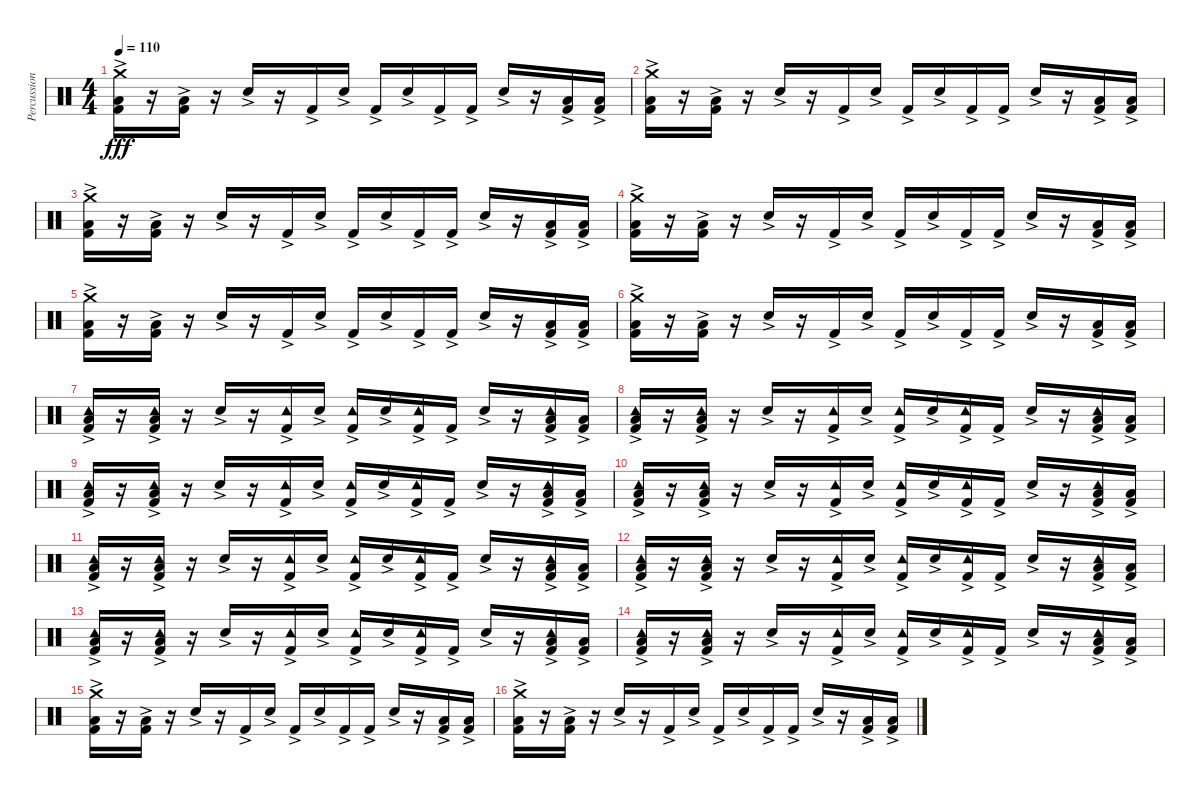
\track ("Percussion" "Percussion") {instrument percussion}
\staff {score}
\articulation defaults
\ts (4 4)
\tempo 110
\clef neutral
\ks c
("Crash medium (hit)" "Kick (hit) 2"{ac} "Low Floor Tom (hit)").16{dy fff} r.16 ("Kick (hit) 2"{ac} "Low Floor Tom (hit)").16 r.16 "Snare (hit) 2"{ac}.16 r.16 "Kick (hit) 2"{ac}.16 "Snare (hit) 2"{ac}.16 "Kick (hit) 2"{ac}.16 "Snare (hit) 2"{ac}.16 "Kick (hit) 2"{ac}.16 "Kick (hit) 2"{ac}.16 "Snare (hit) 2"{ac}.16 r.16 ("Kick (hit) 2"{ac} "Low Floor Tom (hit)").16 ("Kick (hit) 2"{ac} "Low Floor Tom (hit)").16 |
("Crash medium (hit)" "Kick (hit) 2"{ac} "Low Floor Tom (hit)").16 r.16 ("Kick (hit) 2"{ac} "Low Floor Tom (hit)").16 r.16 "Snare (hit) 2"{ac}.16 r.16 "Kick (hit) 2"{ac}.16 "Snare (hit) 2"{ac}.16 "Kick (hit) 2"{ac}.16 "Snare (hit) 2"{ac}.16 "Kick (hit) 2"{ac}.16 "Kick (hit) 2"{ac}.16 "Snare (hit) 2"{ac}.16 r.16 ("Kick (hit) 2"{ac} "Low Floor Tom (hit)").16 ("Kick (hit) 2"{ac} "Low Floor Tom (hit)").16 |
("Crash medium (hit)" "Kick (hit) 2"{ac} "Low Floor Tom (hit)").16 r.16 ("Kick (hit) 2"{ac} "Low Floor Tom (hit)").16 r.16 "Snare (hit) 2"{ac}.16 r.16 "Kick (hit) 2"{ac}.16 "Snare (hit) 2"{ac}.16 "Kick (hit) 2"{ac}.16 "Snare (hit) 2"{ac}.16 "Kick (hit) 2"{ac}.16 "Kick (hit) 2"{ac}.16 "Snare (hit) 2"{ac}.16 r.16 ("Kick (hit) 2"{ac} "Low Floor Tom (hit)").16 ("Kick (hit) 2"{ac} "Low Floor Tom (hit)").16 |
("Crash medium (hit)" "Kick (hit) 2"{ac} "Low Floor Tom (hit)").16 r.16 ("Kick (hit) 2"{ac} "Low Floor Tom (hit)").16 r.16 "Snare (hit) 2"{ac}.16 r.16 "Kick (hit) 2"{ac}.16 "Snare (hit) 2"{ac}.16 "Kick (hit) 2"{ac}.16 "Snare (hit) 2"{ac}.16 "Kick (hit) 2"{ac}.16 "Kick (hit) 2"{ac}.16 "Snare (hit) 2"{ac}.16 r.16 ("Kick (hit) 2"{ac} "Low Floor Tom (hit)").16 ("Kick (hit) 2"{ac} "Low Floor Tom (hit)").16 |
("Crash medium (hit)" "Kick (hit) 2"{ac} "Low Floor Tom (hit)").16 r.16 ("Kick (hit) 2"{ac} "Low Floor Tom (hit)").16 r.16 "Snare (hit) 2"{ac}.16 r.16 "Kick (hit) 2"{ac}.16 "Snare (hit) 2"{ac}.16 "Kick (hit) 2"{ac}.16 "Snare (hit) 2"{ac}.16 "Kick (hit) 2"{ac}.16 "Kick (hit) 2"{ac}.16 "Snare (hit) 2"{ac}.16 r.16 ("Kick (hit) 2"{ac} "Low Floor Tom (hit)").16 ("Kick (hit) 2"{ac} "Low Floor Tom (hit)").16 |
("Crash medium (hit)" "Kick (hit) 2"{ac} "Low Floor Tom (hit)").16 r.16 ("Kick (hit) 2"{ac} "Low Floor Tom (hit)").16 r.16 "Snare (hit) 2"{ac}.16 r.16 "Kick (hit) 2"{ac}.16 "Snare (hit) 2"{ac}.16 "Kick (hit) 2"{ac}.16 "Snare (hit) 2"{ac}.16 "Kick (hit) 2"{ac}.16 "Kick (hit) 2"{ac}.16 "Snare (hit) 2"{ac}.16 r.16 ("Kick (hit) 2"{ac} "Low Floor Tom (hit)").16 ("Kick (hit) 2"{ac} "Low Floor Tom (hit)").16 |
("Kick (hit) 2"{ac} "Low Floor Tom (hit)" "Tambourine (hit)"{ac}).16 r.16 ("Kick (hit) 2"{ac} "Low Floor Tom (hit)" "Tambourine (hit)"{ac}).16 r.16 "Snare (hit) 2"{ac}.16 r.16 ("Kick (hit) 2"{ac} "Tambourine (hit)"{ac}).16 "Snare (hit) 2"{ac}.16 ("Kick (hit) 2"{ac} "Tambourine (hit)"{ac}).16 "Snare (hit) 2"{ac}.16 ("Kick (hit) 2"{ac} "Tambourine (hit)"{ac}).16 "Kick (hit) 2"{ac}.16 "Snare (hit) 2"{ac}.16 r.16 ("Kick (hit) 2"{ac} "Low Floor Tom (hit)" "Tambourine (hit)"{ac}).16 ("Kick (hit) 2"{ac} "Low Floor Tom (hit)").16 |
("Kick (hit) 2"{ac} "Low Floor Tom (hit)" "Tambourine (hit)"{ac}).16 r.16 ("Kick (hit) 2"{ac} "Low Floor Tom (hit)" "Tambourine (hit)"{ac}).16 r.16 "Snare (hit) 2"{ac}.16 r.16 ("Kick (hit) 2"{ac} "Tambourine (hit)"{ac}).16 "Snare (hit) 2"{ac}.16 ("Kick (hit) 2"{ac} "Tambourine (hit)"{ac}).16 "Snare (hit) 2"{ac}.16 ("Kick (hit) 2"{ac} "Tambourine (hit)"{ac}).16 "Kick (hit) 2"{ac}.16 "Snare (hit) 2"{ac}.16 r.16 ("Kick (hit) 2"{ac} "Low Floor Tom (hit)" "Tambourine (hit)"{ac}).16 ("Kick (hit) 2"{ac} "Low Floor Tom (hit)").16 |
("Kick (hit) 2"{ac} "Low Floor Tom (hit)" "Tambourine (hit)"{ac}).16 r.16 ("Kick (hit) 2"{ac} "Low Floor Tom (hit)" "Tambourine (hit)"{ac}).16 r.16 "Snare (hit) 2"{ac}.16 r.16 ("Kick (hit) 2"{ac} "Tambourine (hit)"{ac}).16 "Snare (hit) 2"{ac}.16 ("Kick (hit) 2"{ac} "Tambourine (hit)"{ac}).16 "Snare (hit) 2"{ac}.16 ("Kick (hit) 2"{ac} "Tambourine (hit)"{ac}).16 "Kick (hit) 2"{ac}.16 "Snare (hit) 2"{ac}.16 r.16 ("Kick (hit) 2"{ac} "Low Floor Tom (hit)" "Tambourine (hit)"{ac}).16 ("Kick (hit) 2"{ac} "Low Floor Tom (hit)").16 |
("Kick (hit) 2"{ac} "Low Floor Tom (hit)" "Tambourine (hit)"{ac}).16 r.16 ("Kick (hit) 2"{ac} "Low Floor Tom (hit)" "Tambourine (hit)"{ac}).16 r.16 "Snare (hit) 2"{ac}.16 r.16 ("Kick (hit) 2"{ac} "Tambourine (hit)"{ac}).16 "Snare (hit) 2"{ac}.16 ("Kick (hit) 2"{ac} "Tambourine (hit)"{ac}).16 "Snare (hit) 2"{ac}.16 ("Kick (hit) 2"{ac} "Tambourine (hit)"{ac}).16 "Kick (hit) 2"{ac}.16 "Snare (hit) 2"{ac}.16 r.16 ("Kick (hit) 2"{ac} "Low Floor Tom (hit)" "Tambourine (hit)"{ac}).16 ("Kick (hit) 2"{ac} "Low Floor Tom (hit)").16 |
("Kick (hit) 2"{ac} "Low Floor Tom (hit)" "Tambourine (hit)"{ac}).16 r.16 ("Kick (hit) 2"{ac} "Low Floor Tom (hit)" "Tambourine (hit)"{ac}).16 r.16 "Snare (hit) 2"{ac}.16 r.16 ("Kick (hit) 2"{ac} "Tambourine (hit)"{ac}).16 "Snare (hit) 2"{ac}.16 ("Kick (hit) 2"{ac} "Tambourine (hit)"{ac}).16 "Snare (hit) 2"{ac}.16 ("Kick (hit) 2"{ac} "Tambourine (hit)"{ac}).16 "Kick (hit) 2"{ac}.16 "Snare (hit) 2"{ac}.16 r.16 ("Kick (hit) 2"{ac} "Low Floor Tom (hit)" "Tambourine (hit)"{ac}).16 ("Kick (hit) 2"{ac} "Low Floor Tom (hit)").16 |
("Kick (hit) 2"{ac} "Low Floor Tom (hit)" "Tambourine (hit)"{ac}).16 r.16 ("Kick (hit) 2"{ac} "Low Floor Tom (hit)" "Tambourine (hit)"{ac}).16 r.16 "Snare (hit) 2"{ac}.16 r.16 ("Kick (hit) 2"{ac} "Tambourine (hit)"{ac}).16 "Snare (hit) 2"{ac}.16 ("Kick (hit) 2"{ac} "Tambourine (hit)"{ac}).16 "Snare (hit) 2"{ac}.16 ("Kick (hit) 2"{ac} "Tambourine (hit)"{ac}).16 "Kick (hit) 2"{ac}.16 "Snare (hit) 2"{ac}.16 r.16 ("Kick (hit) 2"{ac} "Low Floor Tom (hit)" "Tambourine (hit)"{ac}).16 ("Kick (hit) 2"{ac} "Low Floor Tom (hit)").16 |
("Kick (hit) 2"{ac} "Low Floor Tom (hit)" "Tambourine (hit)"{ac}).16 r.16 ("Kick (hit) 2"{ac} "Low Floor Tom (hit)" "Tambourine (hit)"{ac}).16 r.16 "Snare (hit) 2"{ac}.16 r.16 ("Kick (hit) 2"{ac} "Tambourine (hit)"{ac}).16 "Snare (hit) 2"{ac}.16 ("Kick (hit) 2"{ac} "Tambourine (hit)"{ac}).16 "Snare (hit) 2"{ac}.16 ("Kick (hit) 2"{ac} "Tambourine (hit)"{ac}).16 "Kick (hit) 2"{ac}.16 "Snare (hit) 2"{ac}.16 r.16 ("Kick (hit) 2"{ac} "Low Floor Tom (hit)" "Tambourine (hit)"{ac}).16 ("Kick (hit) 2"{ac} "Low Floor Tom (hit)").16 |
("Kick (hit) 2"{ac} "Low Floor Tom (hit)" "Tambourine (hit)"{ac}).16 r.16 ("Kick (hit) 2"{ac} "Low Floor Tom (hit)" "Tambourine (hit)"{ac}).16 r.16 "Snare (hit) 2"{ac}.16 r.16 ("Kick (hit) 2"{ac} "Tambourine (hit)"{ac}).16 "Snare (hit) 2"{ac}.16 ("Kick (hit) 2"{ac} "Tambourine (hit)"{ac}).16 "Snare (hit) 2"{ac}.16 ("Kick (hit) 2"{ac} "Tambourine (hit)"{ac}).16 "Kick (hit) 2"{ac}.16 "Snare (hit) 2"{ac}.16 r.16 ("Kick (hit) 2"{ac} "Low Floor Tom (hit)" "Tambourine (hit)"{ac}).16 ("Kick (hit) 2"{ac} "Low Floor Tom (hit)").16 |
("Crash medium (hit)" "Kick (hit) 2"{ac} "Low Floor Tom (hit)").16 r.16 ("Kick (hit) 2"{ac} "Low Floor Tom (hit)").16 r.16 "Snare (hit) 2"{ac}.16 r.16 "Kick (hit) 2"{ac}.16 "Snare (hit) 2"{ac}.16 "Kick (hit) 2"{ac}.16 "Snare (hit) 2"{ac}.16 "Kick (hit) 2"{ac}.16 "Kick (hit) 2"{ac}.16 "Snare (hit) 2"{ac}.16 r.16 ("Kick (hit) 2"{ac} "Low Floor Tom (hit)").16 ("Kick (hit) 2"{ac} "Low Floor Tom (hit)").16 |
("Crash medium (hit)" "Kick (hit) 2"{ac} "Low Floor Tom (hit)").16 r.16 ("Kick (hit) 2"{ac} "Low Floor Tom (hit)").16 r.16 "Snare (hit) 2"{ac}.16 r.16 "Kick (hit) 2"{ac}.16 "Snare (hit) 2"{ac}.16 "Kick (hit) 2"{ac}.16 "Snare (hit) 2"{ac}.16 "Kick (hit) 2"{ac}.16 "Kick (hit) 2"{ac}.16 "Snare (hit) 2"{ac}.16 r.16 ("Kick (hit) 2"{ac} "Low Floor Tom (hit)").16 ("Kick (hit) 2"{ac} "Low Floor Tom (hit)").16
